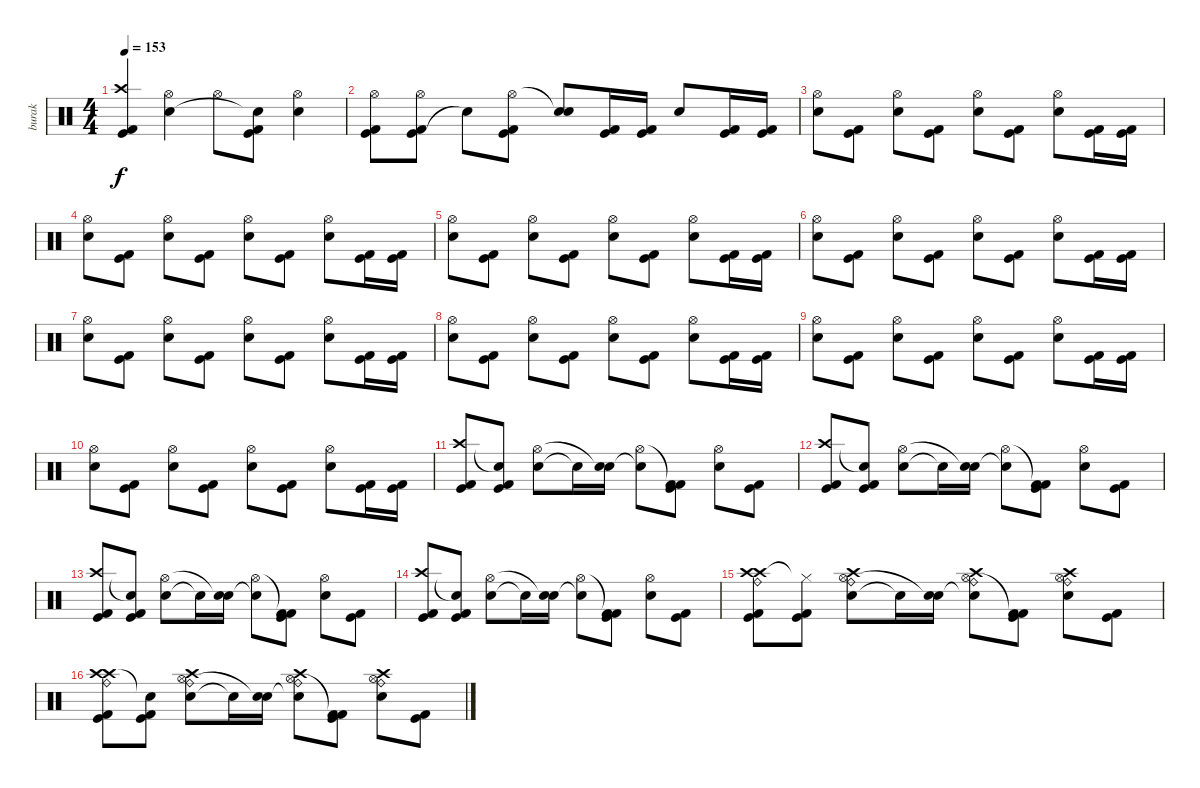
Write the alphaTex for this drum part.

\track ("burak" "burak") {instrument percussion}
\staff {score}
\articulation defaults
\ts (4 4)
\tempo 153
\clef neutral
\ks c
("Kick (hit)" "Crash high (hit)" "Kick (hit) 2").4{dy f} ("Hi-Hat (open)" "Electric Snare (hit)").4 "Hi-Hat (open)".8 ("Kick (hit)" "Snare (hit)"{t} "Kick (hit) 2").8 ("Hi-Hat (open)" "Electric Snare (hit)").4 |
("Kick (hit) 2" "Hi-Hat (open)" "Kick (hit)").8 ("Kick (hit)" "Hi-Hat (open)" "Kick (hit) 2").8 "Snare (hit)"{t}.8 ("Kick (hit)" "Hi-Hat (open)" "Kick (hit) 2").8 ("Electric Snare (hit)" "Snare (hit)"{t}).8 ("Kick (hit)" "Kick (hit) 2").16 ("Kick (hit)" "Kick (hit) 2").16 "Electric Snare (hit)".8 ("Kick (hit) 2" "Kick (hit)").16 ("Kick (hit) 2" "Kick (hit)").16 |
("Hi-Hat (open)" "Electric Snare (hit)").8 ("Kick (hit)" "Kick (hit) 2").8 ("Electric Snare (hit)" "Hi-Hat (open)").8 ("Kick (hit)" "Kick (hit) 2").8 ("Electric Snare (hit)" "Hi-Hat (open)").8 ("Kick (hit)" "Kick (hit) 2").8 ("Hi-Hat (open)" "Electric Snare (hit)").8 ("Kick (hit)" "Kick (hit) 2").16 ("Kick (hit)" "Kick (hit) 2").16 |
("Hi-Hat (open)" "Electric Snare (hit)").8 ("Kick (hit)" "Kick (hit) 2").8 ("Electric Snare (hit)" "Hi-Hat (open)").8 ("Kick (hit)" "Kick (hit) 2").8 ("Electric Snare (hit)" "Hi-Hat (open)").8 ("Kick (hit)" "Kick (hit) 2").8 ("Hi-Hat (open)" "Electric Snare (hit)").8 ("Kick (hit)" "Kick (hit) 2").16 ("Kick (hit)" "Kick (hit) 2").16 |
("Hi-Hat (open)" "Electric Snare (hit)").8 ("Kick (hit)" "Kick (hit) 2").8 ("Electric Snare (hit)" "Hi-Hat (open)").8 ("Kick (hit)" "Kick (hit) 2").8 ("Electric Snare (hit)" "Hi-Hat (open)").8 ("Kick (hit)" "Kick (hit) 2").8 ("Hi-Hat (open)" "Electric Snare (hit)").8 ("Kick (hit)" "Kick (hit) 2").16 ("Kick (hit)" "Kick (hit) 2").16 |
("Hi-Hat (open)" "Electric Snare (hit)").8 ("Kick (hit)" "Kick (hit) 2").8 ("Electric Snare (hit)" "Hi-Hat (open)").8 ("Kick (hit)" "Kick (hit) 2").8 ("Electric Snare (hit)" "Hi-Hat (open)").8 ("Kick (hit)" "Kick (hit) 2").8 ("Hi-Hat (open)" "Electric Snare (hit)").8 ("Kick (hit)" "Kick (hit) 2").16 ("Kick (hit)" "Kick (hit) 2").16 |
("Hi-Hat (open)" "Electric Snare (hit)").8 ("Kick (hit)" "Kick (hit) 2").8 ("Electric Snare (hit)" "Hi-Hat (open)").8 ("Kick (hit)" "Kick (hit) 2").8 ("Electric Snare (hit)" "Hi-Hat (open)").8 ("Kick (hit)" "Kick (hit) 2").8 ("Hi-Hat (open)" "Electric Snare (hit)").8 ("Kick (hit)" "Kick (hit) 2").16 ("Kick (hit)" "Kick (hit) 2").16 |
("Hi-Hat (open)" "Electric Snare (hit)").8 ("Kick (hit)" "Kick (hit) 2").8 ("Electric Snare (hit)" "Hi-Hat (open)").8 ("Kick (hit)" "Kick (hit) 2").8 ("Electric Snare (hit)" "Hi-Hat (open)").8 ("Kick (hit)" "Kick (hit) 2").8 ("Hi-Hat (open)" "Electric Snare (hit)").8 ("Kick (hit)" "Kick (hit) 2").16 ("Kick (hit)" "Kick (hit) 2").16 |
("Hi-Hat (open)" "Electric Snare (hit)").8 ("Kick (hit)" "Kick (hit) 2").8 ("Electric Snare (hit)" "Hi-Hat (open)").8 ("Kick (hit)" "Kick (hit) 2").8 ("Electric Snare (hit)" "Hi-Hat (open)").8 ("Kick (hit)" "Kick (hit) 2").8 ("Hi-Hat (open)" "Electric Snare (hit)").8 ("Kick (hit)" "Kick (hit) 2").16 ("Kick (hit)" "Kick (hit) 2").16 |
("Hi-Hat (open)" "Electric Snare (hit)").8 ("Kick (hit)" "Kick (hit) 2").8 ("Electric Snare (hit)" "Hi-Hat (open)").8 ("Kick (hit)" "Kick (hit) 2").8 ("Electric Snare (hit)" "Hi-Hat (open)").8 ("Kick (hit)" "Kick (hit) 2").8 ("Hi-Hat (open)" "Electric Snare (hit)").8 ("Kick (hit)" "Kick (hit) 2").16 ("Kick (hit)" "Kick (hit) 2").16 |
("Kick (hit) 2" "Kick (hit)" "Crash high (hit)").8 ("Kick (hit) 2" "Kick (hit)" "Snare (hit)"{t}).8 ("Electric Snare (hit)" "Hi-Hat (open)").8 "Snare (hit)"{t}.16 ("Electric Snare (hit)" "Snare (hit)"{t}).16 ("Snare (hit)"{t} "Hi-Hat (open)").8 ("Kick (hit)" "Kick (hit) 2"{t} "Kick (hit) 2").8 ("Hi-Hat (open)" "Electric Snare (hit)").8 ("Kick (hit)" "Kick (hit) 2").8 |
("Kick (hit) 2" "Kick (hit)" "Crash high (hit)").8 ("Kick (hit) 2" "Kick (hit)" "Snare (hit)"{t}).8 ("Electric Snare (hit)" "Hi-Hat (open)").8 "Snare (hit)"{t}.16 ("Electric Snare (hit)" "Snare (hit)"{t}).16 ("Snare (hit)"{t} "Hi-Hat (open)").8 ("Kick (hit)" "Kick (hit) 2"{t} "Kick (hit) 2").8 ("Hi-Hat (open)" "Electric Snare (hit)").8 ("Kick (hit)" "Kick (hit) 2").8 |
("Kick (hit) 2" "Kick (hit)" "Crash high (hit)").8 ("Kick (hit) 2" "Kick (hit)" "Snare (hit)"{t}).8 ("Electric Snare (hit)" "Hi-Hat (open)").8 "Snare (hit)"{t}.16 ("Electric Snare (hit)" "Snare (hit)"{t}).16 ("Snare (hit)"{t} "Hi-Hat (open)").8 ("Kick (hit)" "Kick (hit) 2"{t} "Kick (hit) 2").8 ("Hi-Hat (open)" "Electric Snare (hit)").8 ("Kick (hit)" "Kick (hit) 2").8 |
("Kick (hit) 2" "Kick (hit)" "Crash high (hit)").8 ("Kick (hit) 2" "Kick (hit)" "Snare (hit)"{t}).8 ("Electric Snare (hit)" "Hi-Hat (open)").8 "Snare (hit)"{t}.16 ("Electric Snare (hit)" "Snare (hit)"{t}).16 ("Snare (hit)"{t} "Hi-Hat (open)").8 ("Kick (hit)" "Kick (hit) 2"{t} "Kick (hit) 2").8 ("Hi-Hat (open)" "Electric Snare (hit)").8 ("Kick (hit)" "Kick (hit) 2").8 |
("Kick (hit) 2" "Kick (hit)" "Crash high (hit)" "Crash high (hit)" "Ride (bell)").8 ("Kick (hit) 2" "Kick (hit)" "Hi-Hat (closed)"{t}).8 ("Electric Snare (hit)" "Hi-Hat (open)" "Crash high (hit)" "Ride (bell)").8 "Snare (hit)"{t}.16 ("Electric Snare (hit)" "Snare (hit)"{t}).16 ("Snare (hit)"{t} "Hi-Hat (open)" "Crash high (hit)" "Ride (bell)").8 ("Kick (hit)" "Kick (hit) 2"{t} "Kick (hit) 2").8 ("Hi-Hat (open)" "Electric Snare (hit)" "Crash high (hit)" "Ride (bell)").8 ("Kick (hit)" "Kick (hit) 2").8 |
("Kick (hit) 2" "Kick (hit)" "Crash high (hit)" "Crash high (hit)" "Ride (bell)").8 ("Kick (hit) 2" "Kick (hit)" "Snare (hit)"{t}).8 ("Electric Snare (hit)" "Hi-Hat (open)" "Crash high (hit)" "Ride (bell)").8 "Snare (hit)"{t}.16 ("Electric Snare (hit)" "Snare (hit)"{t}).16 ("Snare (hit)"{t} "Hi-Hat (open)" "Crash high (hit)" "Ride (bell)").8 ("Kick (hit)" "Kick (hit) 2"{t} "Kick (hit) 2").8 ("Hi-Hat (open)" "Electric Snare (hit)" "Crash high (hit)" "Ride (bell)").8 ("Kick (hit)" "Kick (hit) 2").8
